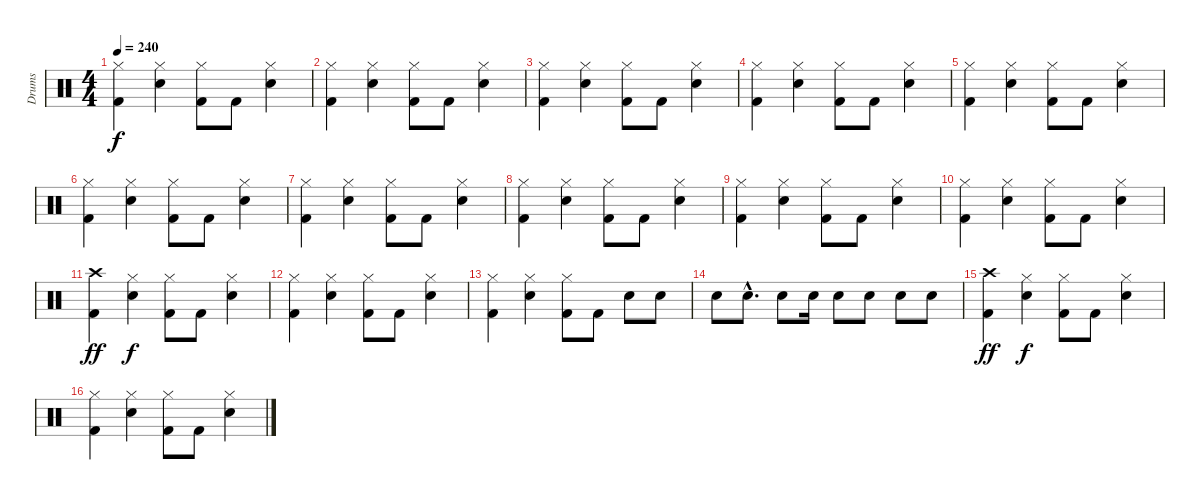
\track ("Drums" "Drums") {instrument percussion}
\staff {score}
\articulation defaults
\ts (4 4)
\tempo 240
\clef neutral
\ks c
("Hi-Hat (closed)" "Kick (hit) 2").4{dy f} ("Hi-Hat (closed)" "Snare (hit) 2").4 ("Hi-Hat (closed)" "Kick (hit) 2").8 "Kick (hit) 2".8 ("Hi-Hat (closed)" "Snare (hit) 2").4 |
("Hi-Hat (closed)" "Kick (hit) 2").4 ("Hi-Hat (closed)" "Snare (hit) 2").4 ("Hi-Hat (closed)" "Kick (hit) 2").8 "Kick (hit) 2".8 ("Hi-Hat (closed)" "Snare (hit) 2").4 |
("Hi-Hat (closed)" "Kick (hit) 2").4 ("Hi-Hat (closed)" "Snare (hit) 2").4 ("Hi-Hat (closed)" "Kick (hit) 2").8 "Kick (hit) 2".8 ("Hi-Hat (closed)" "Snare (hit) 2").4 |
("Hi-Hat (closed)" "Kick (hit) 2").4 ("Hi-Hat (closed)" "Snare (hit) 2").4 ("Hi-Hat (closed)" "Kick (hit) 2").8 "Kick (hit) 2".8 ("Hi-Hat (closed)" "Snare (hit) 2").4 |
("Hi-Hat (closed)" "Kick (hit) 2").4 ("Hi-Hat (closed)" "Snare (hit) 2").4 ("Hi-Hat (closed)" "Kick (hit) 2").8 "Kick (hit) 2".8 ("Hi-Hat (closed)" "Snare (hit) 2").4 |
("Hi-Hat (closed)" "Kick (hit) 2").4 ("Hi-Hat (closed)" "Snare (hit) 2").4 ("Hi-Hat (closed)" "Kick (hit) 2").8 "Kick (hit) 2".8 ("Hi-Hat (closed)" "Snare (hit) 2").4 |
("Hi-Hat (closed)" "Kick (hit) 2").4 ("Hi-Hat (closed)" "Snare (hit) 2").4 ("Hi-Hat (closed)" "Kick (hit) 2").8 "Kick (hit) 2".8 ("Hi-Hat (closed)" "Snare (hit) 2").4 |
("Hi-Hat (closed)" "Kick (hit) 2").4 ("Hi-Hat (closed)" "Snare (hit) 2").4 ("Hi-Hat (closed)" "Kick (hit) 2").8 "Kick (hit) 2".8 ("Hi-Hat (closed)" "Snare (hit) 2").4 |
("Hi-Hat (closed)" "Kick (hit) 2").4 ("Hi-Hat (closed)" "Snare (hit) 2").4 ("Hi-Hat (closed)" "Kick (hit) 2").8 "Kick (hit) 2".8 ("Hi-Hat (closed)" "Snare (hit) 2").4 |
("Hi-Hat (closed)" "Kick (hit) 2").4 ("Hi-Hat (closed)" "Snare (hit) 2").4 ("Hi-Hat (closed)" "Kick (hit) 2").8 "Kick (hit) 2".8 ("Hi-Hat (closed)" "Snare (hit) 2").4 |
("Crash high (hit)" "Kick (hit) 2").4{dy ff} ("Hi-Hat (closed)" "Snare (hit) 2").4{dy f} ("Hi-Hat (closed)" "Kick (hit) 2").8 "Kick (hit) 2".8 ("Hi-Hat (closed)" "Snare (hit) 2").4 |
("Hi-Hat (closed)" "Kick (hit) 2").4 ("Hi-Hat (closed)" "Snare (hit) 2").4 ("Hi-Hat (closed)" "Kick (hit) 2").8 "Kick (hit) 2".8 ("Hi-Hat (closed)" "Snare (hit) 2").4 |
("Hi-Hat (closed)" "Kick (hit) 2").4 ("Hi-Hat (closed)" "Snare (hit) 2").4 ("Hi-Hat (closed)" "Kick (hit) 2").8 "Kick (hit) 2".8 "Electric Snare (hit)".8 "Electric Snare (hit)".8 |
"Electric Snare (hit)".8 "Electric Snare (hit)"{hac}.8{d} "Electric Snare (hit)".8 "Electric Snare (hit)".16 "Electric Snare (hit)".8 "Electric Snare (hit)".8 "Electric Snare (hit)".8 "Electric Snare (hit)".8 |
("Crash high (hit)" "Kick (hit) 2").4{dy ff} ("Hi-Hat (closed)" "Snare (hit) 2").4{dy f} ("Hi-Hat (closed)" "Kick (hit) 2").8 "Kick (hit) 2".8 ("Hi-Hat (closed)" "Snare (hit) 2").4 |
("Hi-Hat (closed)" "Kick (hit) 2").4 ("Hi-Hat (closed)" "Snare (hit) 2").4 ("Hi-Hat (closed)" "Kick (hit) 2").8 "Kick (hit) 2".8 ("Hi-Hat (closed)" "Snare (hit) 2").4
